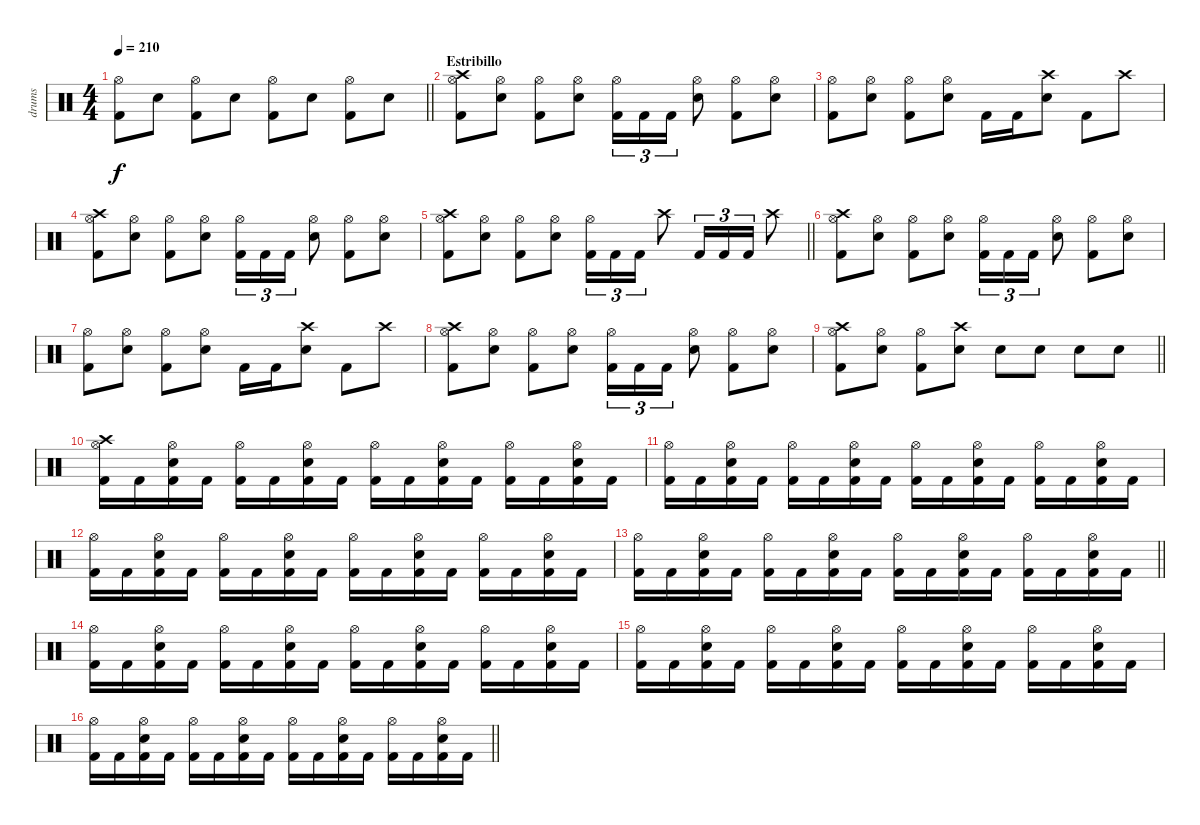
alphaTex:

\track ("drums" "drums") {instrument percussion}
\staff {score}
\articulation defaults
\ts (4 4)
\tempo 210
\clef neutral
\barLineRight lightlight
\ks c
("Hi-Hat (open)" "Kick (hit) 2").8{dy f} "Electric Snare (hit)".8 ("Hi-Hat (open)" "Kick (hit) 2").8 "Electric Snare (hit)".8 ("Hi-Hat (open)" "Kick (hit) 2").8 "Electric Snare (hit)".8 ("Hi-Hat (open)" "Kick (hit) 2").8 "Electric Snare (hit)".8 |
\section ("" "Estribillo")
("Crash high (hit)" "Hi-Hat (open)" "Kick (hit) 2").8 ("Hi-Hat (open)" "Electric Snare (hit)").8 ("Hi-Hat (open)" "Kick (hit) 2").8 ("Hi-Hat (open)" "Electric Snare (hit)").8 ("Hi-Hat (open)" "Kick (hit) 2").16{tu (3 2)} "Kick (hit) 2".16{tu (3 2)} "Kick (hit) 2".16{tu (3 2)} ("Hi-Hat (open)" "Electric Snare (hit)").8 ("Hi-Hat (open)" "Kick (hit) 2").8 ("Hi-Hat (open)" "Electric Snare (hit)").8 |
("Hi-Hat (open)" "Kick (hit) 2").8 ("Hi-Hat (open)" "Electric Snare (hit)").8 ("Hi-Hat (open)" "Kick (hit) 2").8 ("Hi-Hat (open)" "Electric Snare (hit)").8 "Kick (hit) 2".16 "Kick (hit) 2".16 ("Crash high (hit)" "Electric Snare (hit)").8 "Kick (hit) 2".8 "Crash high (hit)".8 |
("Crash high (hit)" "Hi-Hat (open)" "Kick (hit) 2").8 ("Hi-Hat (open)" "Electric Snare (hit)").8 ("Hi-Hat (open)" "Kick (hit) 2").8 ("Hi-Hat (open)" "Electric Snare (hit)").8 ("Hi-Hat (open)" "Kick (hit) 2").16{tu (3 2)} "Kick (hit) 2".16{tu (3 2)} "Kick (hit) 2".16{tu (3 2)} ("Hi-Hat (open)" "Electric Snare (hit)").8 ("Hi-Hat (open)" "Kick (hit) 2").8 ("Hi-Hat (open)" "Electric Snare (hit)").8 |
\barLineRight lightlight
("Crash high (hit)" "Hi-Hat (open)" "Kick (hit) 2").8 ("Hi-Hat (open)" "Electric Snare (hit)").8 ("Hi-Hat (open)" "Kick (hit) 2").8 ("Hi-Hat (open)" "Electric Snare (hit)").8 ("Hi-Hat (open)" "Kick (hit) 2").16{tu (3 2)} "Kick (hit) 2".16{tu (3 2)} "Kick (hit) 2".16{tu (3 2)} "Crash high (hit)".8 "Kick (hit) 2".16{tu (3 2)} "Kick (hit) 2".16{tu (3 2)} "Kick (hit) 2".16{tu (3 2)} "Crash high (hit)".8 |
("Crash high (hit)" "Hi-Hat (open)" "Kick (hit) 2").8 ("Hi-Hat (open)" "Electric Snare (hit)").8 ("Hi-Hat (open)" "Kick (hit) 2").8 ("Hi-Hat (open)" "Electric Snare (hit)").8 ("Hi-Hat (open)" "Kick (hit) 2").16{tu (3 2)} "Kick (hit) 2".16{tu (3 2)} "Kick (hit) 2".16{tu (3 2)} ("Hi-Hat (open)" "Electric Snare (hit)").8 ("Hi-Hat (open)" "Kick (hit) 2").8 ("Hi-Hat (open)" "Electric Snare (hit)").8 |
("Hi-Hat (open)" "Kick (hit) 2").8 ("Hi-Hat (open)" "Electric Snare (hit)").8 ("Hi-Hat (open)" "Kick (hit) 2").8 ("Hi-Hat (open)" "Electric Snare (hit)").8 "Kick (hit) 2".16 "Kick (hit) 2".16 ("Crash high (hit)" "Electric Snare (hit)").8 "Kick (hit) 2".8 "Crash high (hit)".8 |
("Crash high (hit)" "Hi-Hat (open)" "Kick (hit) 2").8 ("Hi-Hat (open)" "Electric Snare (hit)").8 ("Hi-Hat (open)" "Kick (hit) 2").8 ("Hi-Hat (open)" "Electric Snare (hit)").8 ("Hi-Hat (open)" "Kick (hit) 2").16{tu (3 2)} "Kick (hit) 2".16{tu (3 2)} "Kick (hit) 2".16{tu (3 2)} ("Hi-Hat (open)" "Electric Snare (hit)").8 ("Hi-Hat (open)" "Kick (hit) 2").8 ("Hi-Hat (open)" "Electric Snare (hit)").8 |
\barLineRight lightlight
("Crash high (hit)" "Hi-Hat (open)" "Kick (hit) 2").8 ("Hi-Hat (open)" "Electric Snare (hit)").8 ("Hi-Hat (open)" "Kick (hit) 2").8 ("Crash high (hit)" "Electric Snare (hit)").8 "Electric Snare (hit)".8 "Electric Snare (hit)".8 "Electric Snare (hit)".8 "Electric Snare (hit)".8 |
("Crash high (hit)" "Hi-Hat (open)" "Kick (hit) 2").16 "Kick (hit) 2".16 ("Hi-Hat (open)" "Electric Snare (hit)" "Kick (hit) 2").16 "Kick (hit) 2".16 ("Hi-Hat (open)" "Kick (hit) 2").16 "Kick (hit) 2".16 ("Hi-Hat (open)" "Electric Snare (hit)" "Kick (hit) 2").16 "Kick (hit) 2".16 ("Hi-Hat (open)" "Kick (hit) 2").16 "Kick (hit) 2".16 ("Hi-Hat (open)" "Electric Snare (hit)" "Kick (hit) 2").16 "Kick (hit) 2".16 ("Hi-Hat (open)" "Kick (hit) 2").16 "Kick (hit) 2".16 ("Hi-Hat (open)" "Electric Snare (hit)" "Kick (hit) 2").16 "Kick (hit) 2".16 |
("Hi-Hat (open)" "Kick (hit) 2").16 "Kick (hit) 2".16 ("Hi-Hat (open)" "Electric Snare (hit)" "Kick (hit) 2").16 "Kick (hit) 2".16 ("Hi-Hat (open)" "Kick (hit) 2").16 "Kick (hit) 2".16 ("Hi-Hat (open)" "Electric Snare (hit)" "Kick (hit) 2").16 "Kick (hit) 2".16 ("Hi-Hat (open)" "Kick (hit) 2").16 "Kick (hit) 2".16 ("Hi-Hat (open)" "Electric Snare (hit)" "Kick (hit) 2").16 "Kick (hit) 2".16 ("Hi-Hat (open)" "Kick (hit) 2").16 "Kick (hit) 2".16 ("Hi-Hat (open)" "Electric Snare (hit)" "Kick (hit) 2").16 "Kick (hit) 2".16 |
("Hi-Hat (open)" "Kick (hit) 2").16 "Kick (hit) 2".16 ("Hi-Hat (open)" "Electric Snare (hit)" "Kick (hit) 2").16 "Kick (hit) 2".16 ("Hi-Hat (open)" "Kick (hit) 2").16 "Kick (hit) 2".16 ("Hi-Hat (open)" "Electric Snare (hit)" "Kick (hit) 2").16 "Kick (hit) 2".16 ("Hi-Hat (open)" "Kick (hit) 2").16 "Kick (hit) 2".16 ("Hi-Hat (open)" "Electric Snare (hit)" "Kick (hit) 2").16 "Kick (hit) 2".16 ("Hi-Hat (open)" "Kick (hit) 2").16 "Kick (hit) 2".16 ("Hi-Hat (open)" "Electric Snare (hit)" "Kick (hit) 2").16 "Kick (hit) 2".16 |
\barLineRight lightlight
("Hi-Hat (open)" "Kick (hit) 2").16 "Kick (hit) 2".16 ("Hi-Hat (open)" "Electric Snare (hit)" "Kick (hit) 2").16 "Kick (hit) 2".16 ("Hi-Hat (open)" "Kick (hit) 2").16 "Kick (hit) 2".16 ("Hi-Hat (open)" "Electric Snare (hit)" "Kick (hit) 2").16 "Kick (hit) 2".16 ("Hi-Hat (open)" "Kick (hit) 2").16 "Kick (hit) 2".16 ("Hi-Hat (open)" "Electric Snare (hit)" "Kick (hit) 2").16 "Kick (hit) 2".16 ("Hi-Hat (open)" "Kick (hit) 2").16 "Kick (hit) 2".16 ("Hi-Hat (open)" "Electric Snare (hit)" "Kick (hit) 2").16 "Kick (hit) 2".16 |
("Hi-Hat (open)" "Kick (hit) 2").16 "Kick (hit) 2".16 ("Hi-Hat (open)" "Electric Snare (hit)" "Kick (hit) 2").16 "Kick (hit) 2".16 ("Hi-Hat (open)" "Kick (hit) 2").16 "Kick (hit) 2".16 ("Hi-Hat (open)" "Electric Snare (hit)" "Kick (hit) 2").16 "Kick (hit) 2".16 ("Hi-Hat (open)" "Kick (hit) 2").16 "Kick (hit) 2".16 ("Hi-Hat (open)" "Electric Snare (hit)" "Kick (hit) 2").16 "Kick (hit) 2".16 ("Hi-Hat (open)" "Kick (hit) 2").16 "Kick (hit) 2".16 ("Hi-Hat (open)" "Electric Snare (hit)" "Kick (hit) 2").16 "Kick (hit) 2".16 |
("Hi-Hat (open)" "Kick (hit) 2").16 "Kick (hit) 2".16 ("Hi-Hat (open)" "Electric Snare (hit)" "Kick (hit) 2").16 "Kick (hit) 2".16 ("Hi-Hat (open)" "Kick (hit) 2").16 "Kick (hit) 2".16 ("Hi-Hat (open)" "Electric Snare (hit)" "Kick (hit) 2").16 "Kick (hit) 2".16 ("Hi-Hat (open)" "Kick (hit) 2").16 "Kick (hit) 2".16 ("Hi-Hat (open)" "Electric Snare (hit)" "Kick (hit) 2").16 "Kick (hit) 2".16 ("Hi-Hat (open)" "Kick (hit) 2").16 "Kick (hit) 2".16 ("Hi-Hat (open)" "Electric Snare (hit)" "Kick (hit) 2").16 "Kick (hit) 2".16 |
\barLineRight lightlight
("Hi-Hat (open)" "Kick (hit) 2").16 "Kick (hit) 2".16 ("Hi-Hat (open)" "Electric Snare (hit)" "Kick (hit) 2").16 "Kick (hit) 2".16 ("Hi-Hat (open)" "Kick (hit) 2").16 "Kick (hit) 2".16 ("Hi-Hat (open)" "Electric Snare (hit)" "Kick (hit) 2").16 "Kick (hit) 2".16 ("Hi-Hat (open)" "Kick (hit) 2").16 "Kick (hit) 2".16 ("Hi-Hat (open)" "Electric Snare (hit)" "Kick (hit) 2").16 "Kick (hit) 2".16 ("Hi-Hat (open)" "Kick (hit) 2").16 "Kick (hit) 2".16 ("Hi-Hat (open)" "Electric Snare (hit)" "Kick (hit) 2").16 "Kick (hit) 2".16
